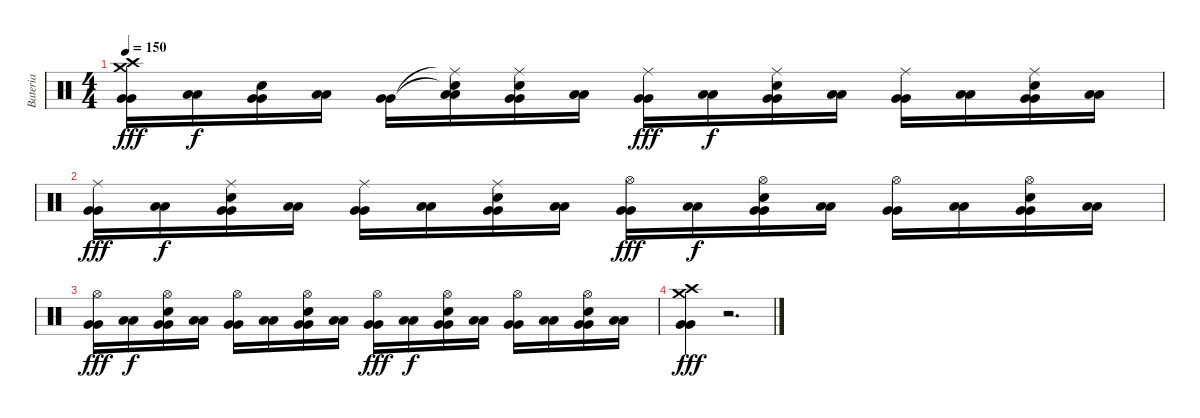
\track ("Bateria" "Bateria") {instrument percussion}
\staff {score}
\articulation defaults
\ts (4 4)
\tempo 150
\clef neutral
\ks c
("Crash high (hit)" "Crash medium (hit)" "Very Low Tom (hit)" "Very Low Tom (hit)").16{dy fff} ("Low Floor Tom (hit)" "Low Floor Tom (hit)").16{dy f} ("Electric Snare (hit)" "Very Low Tom (hit)" "Very Low Tom (hit)").16 ("Low Floor Tom (hit)" "Low Floor Tom (hit)").16 ("Very Low Tom (hit)" "Very Low Tom (hit)").16 ("Ride (middle)"{t} "Snare (hit)"{t} "Low Floor Tom (hit)" "Low Floor Tom (hit)").16 ("Ride (middle)" "Electric Snare (hit)" "Very Low Tom (hit)" "Very Low Tom (hit)").16 ("Low Floor Tom (hit)" "Low Floor Tom (hit)").16 ("Ride (middle)" "Very Low Tom (hit)" "Very Low Tom (hit)").16{dy fff} ("Low Floor Tom (hit)" "Low Floor Tom (hit)").16{dy f} ("Ride (middle)" "Electric Snare (hit)" "Very Low Tom (hit)" "Very Low Tom (hit)").16 ("Low Floor Tom (hit)" "Low Floor Tom (hit)").16 ("Ride (middle)" "Very Low Tom (hit)" "Very Low Tom (hit)").16 ("Low Floor Tom (hit)" "Low Floor Tom (hit)").16 ("Ride (middle)" "Electric Snare (hit)" "Very Low Tom (hit)" "Very Low Tom (hit)").16 ("Low Floor Tom (hit)" "Low Floor Tom (hit)").16 |
("Ride (middle)" "Very Low Tom (hit)" "Very Low Tom (hit)").16{dy fff} ("Low Floor Tom (hit)" "Low Floor Tom (hit)").16{dy f} ("Ride (middle)" "Electric Snare (hit)" "Very Low Tom (hit)" "Very Low Tom (hit)").16 ("Low Floor Tom (hit)" "Low Floor Tom (hit)").16 ("Ride (middle)" "Very Low Tom (hit)" "Very Low Tom (hit)").16 ("Low Floor Tom (hit)" "Low Floor Tom (hit)").16 ("Ride (middle)" "Electric Snare (hit)" "Very Low Tom (hit)" "Very Low Tom (hit)").16 ("Low Floor Tom (hit)" "Low Floor Tom (hit)").16 ("Hi-Hat (open)" "Very Low Tom (hit)" "Very Low Tom (hit)").16{dy fff} ("Low Floor Tom (hit)" "Low Floor Tom (hit)").16{dy f} ("Hi-Hat (open)" "Electric Snare (hit)" "Very Low Tom (hit)" "Very Low Tom (hit)").16 ("Low Floor Tom (hit)" "Low Floor Tom (hit)").16 ("Hi-Hat (open)" "Very Low Tom (hit)" "Very Low Tom (hit)").16 ("Low Floor Tom (hit)" "Low Floor Tom (hit)").16 ("Hi-Hat (open)" "Electric Snare (hit)" "Very Low Tom (hit)" "Very Low Tom (hit)").16 ("Low Floor Tom (hit)" "Low Floor Tom (hit)").16 |
("Hi-Hat (open)" "Very Low Tom (hit)" "Very Low Tom (hit)").16{dy fff} ("Low Floor Tom (hit)" "Low Floor Tom (hit)").16{dy f} ("Hi-Hat (open)" "Electric Snare (hit)" "Very Low Tom (hit)" "Very Low Tom (hit)").16 ("Low Floor Tom (hit)" "Low Floor Tom (hit)").16 ("Hi-Hat (open)" "Very Low Tom (hit)" "Very Low Tom (hit)").16 ("Low Floor Tom (hit)" "Low Floor Tom (hit)").16 ("Hi-Hat (open)" "Electric Snare (hit)" "Very Low Tom (hit)" "Very Low Tom (hit)").16 ("Low Floor Tom (hit)" "Low Floor Tom (hit)").16 ("Hi-Hat (open)" "Very Low Tom (hit)" "Very Low Tom (hit)").16{dy fff} ("Low Floor Tom (hit)" "Low Floor Tom (hit)").16{dy f} ("Hi-Hat (open)" "Electric Snare (hit)" "Very Low Tom (hit)" "Very Low Tom (hit)").16 ("Low Floor Tom (hit)" "Low Floor Tom (hit)").16 ("Hi-Hat (open)" "Very Low Tom (hit)" "Very Low Tom (hit)").16 ("Low Floor Tom (hit)" "Low Floor Tom (hit)").16 ("Hi-Hat (open)" "Electric Snare (hit)" "Very Low Tom (hit)" "Very Low Tom (hit)").16 ("Low Floor Tom (hit)" "Low Floor Tom (hit)").16 |
("Crash high (hit)" "Crash medium (hit)" "Very Low Tom (hit)" "Very Low Tom (hit)").4{dy fff} r.2{d}
